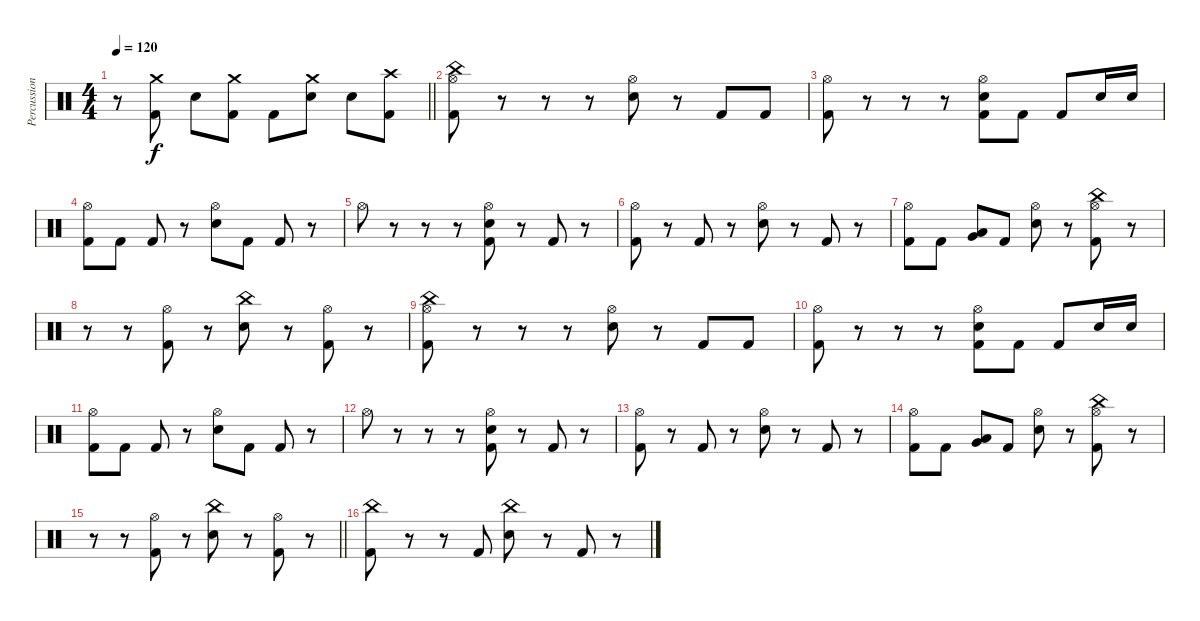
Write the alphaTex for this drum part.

\track ("Percussion" "Percussion") {instrument percussion}
\staff {score}
\articulation defaults
\ts (4 4)
\tempo 120
\clef neutral
\barLineRight lightlight
\ks c
r.8{dy f} ("Crash medium (hit)" "Kick (hit) 2").8 "Electric Snare (hit)".8 ("Crash medium (hit)" "Kick (hit) 2").8 "Kick (hit) 2".8 ("Crash medium (hit)" "Electric Snare (hit)").8 "Electric Snare (hit)".8 ("Crash high (hit)" "Kick (hit) 2").8 |
\section ("" "")
("Hi-Hat (open)" "China (hit)" "Kick (hit) 2").8 r.8 r.8 r.8 ("Hi-Hat (open)" "Electric Snare (hit)").8 r.8 "Kick (hit) 2".8 "Kick (hit) 2".8 |
("Hi-Hat (open)" "Kick (hit) 2").8 r.8 r.8 r.8 ("Hi-Hat (open)" "Electric Snare (hit)" "Kick (hit) 2").8 "Kick (hit) 2".8 "Kick (hit) 2".8 "Electric Snare (hit)".16 "Electric Snare (hit)".16 |
("Hi-Hat (open)" "Kick (hit) 2").8 "Kick (hit) 2".8 "Kick (hit) 2".8 r.8 ("Hi-Hat (open)" "Electric Snare (hit)").8 "Kick (hit) 2".8 "Kick (hit) 2".8 r.8 |
"Hi-Hat (open)".8 r.8 r.8 r.8 ("Hi-Hat (open)" "Electric Snare (hit)" "Kick (hit) 2").8 r.8 "Kick (hit) 2".8 r.8 |
("Hi-Hat (open)" "Kick (hit) 2").8 r.8 "Kick (hit) 2".8 r.8 ("Hi-Hat (open)" "Electric Snare (hit)").8 r.8 "Kick (hit) 2".8 r.8 |
("Hi-Hat (open)" "Kick (hit) 2").8 "Kick (hit) 2".8 ("Very Low Tom (hit)" "Low Tom (hit)").8 "Kick (hit) 2".8 ("Hi-Hat (open)" "Electric Snare (hit)").8 r.8 ("China (hit)" "Hi-Hat (open)" "Kick (hit) 2").8 r.8 |
r.8 r.8 ("Hi-Hat (open)" "Kick (hit) 2").8 r.8 ("China (hit)" "Electric Snare (hit)").8 r.8 ("Hi-Hat (open)" "Kick (hit) 2").8 r.8 |
("Hi-Hat (open)" "China (hit)" "Kick (hit) 2").8 r.8 r.8 r.8 ("Hi-Hat (open)" "Electric Snare (hit)").8 r.8 "Kick (hit) 2".8 "Kick (hit) 2".8 |
("Hi-Hat (open)" "Kick (hit) 2").8 r.8 r.8 r.8 ("Hi-Hat (open)" "Electric Snare (hit)" "Kick (hit) 2").8 "Kick (hit) 2".8 "Kick (hit) 2".8 "Electric Snare (hit)".16 "Electric Snare (hit)".16 |
("Hi-Hat (open)" "Kick (hit) 2").8 "Kick (hit) 2".8 "Kick (hit) 2".8 r.8 ("Hi-Hat (open)" "Electric Snare (hit)").8 "Kick (hit) 2".8 "Kick (hit) 2".8 r.8 |
"Hi-Hat (open)".8 r.8 r.8 r.8 ("Hi-Hat (open)" "Electric Snare (hit)" "Kick (hit) 2").8 r.8 "Kick (hit) 2".8 r.8 |
("Hi-Hat (open)" "Kick (hit) 2").8 r.8 "Kick (hit) 2".8 r.8 ("Hi-Hat (open)" "Electric Snare (hit)").8 r.8 "Kick (hit) 2".8 r.8 |
("Hi-Hat (open)" "Kick (hit) 2").8 "Kick (hit) 2".8 ("Very Low Tom (hit)" "Low Tom (hit)").8 "Kick (hit) 2".8 ("Hi-Hat (open)" "Electric Snare (hit)").8 r.8 ("China (hit)" "Hi-Hat (open)" "Kick (hit) 2").8 r.8 |
\barLineRight lightlight
r.8 r.8 ("Hi-Hat (open)" "Kick (hit) 2").8 r.8 ("China (hit)" "Electric Snare (hit)").8 r.8 ("Hi-Hat (open)" "Kick (hit) 2").8 r.8 |
\section ("" "")
("China (hit)" "Kick (hit) 2").8 r.8 r.8 "Kick (hit) 2".8 ("China (hit)" "Electric Snare (hit)").8 r.8 "Kick (hit) 2".8 r.8
